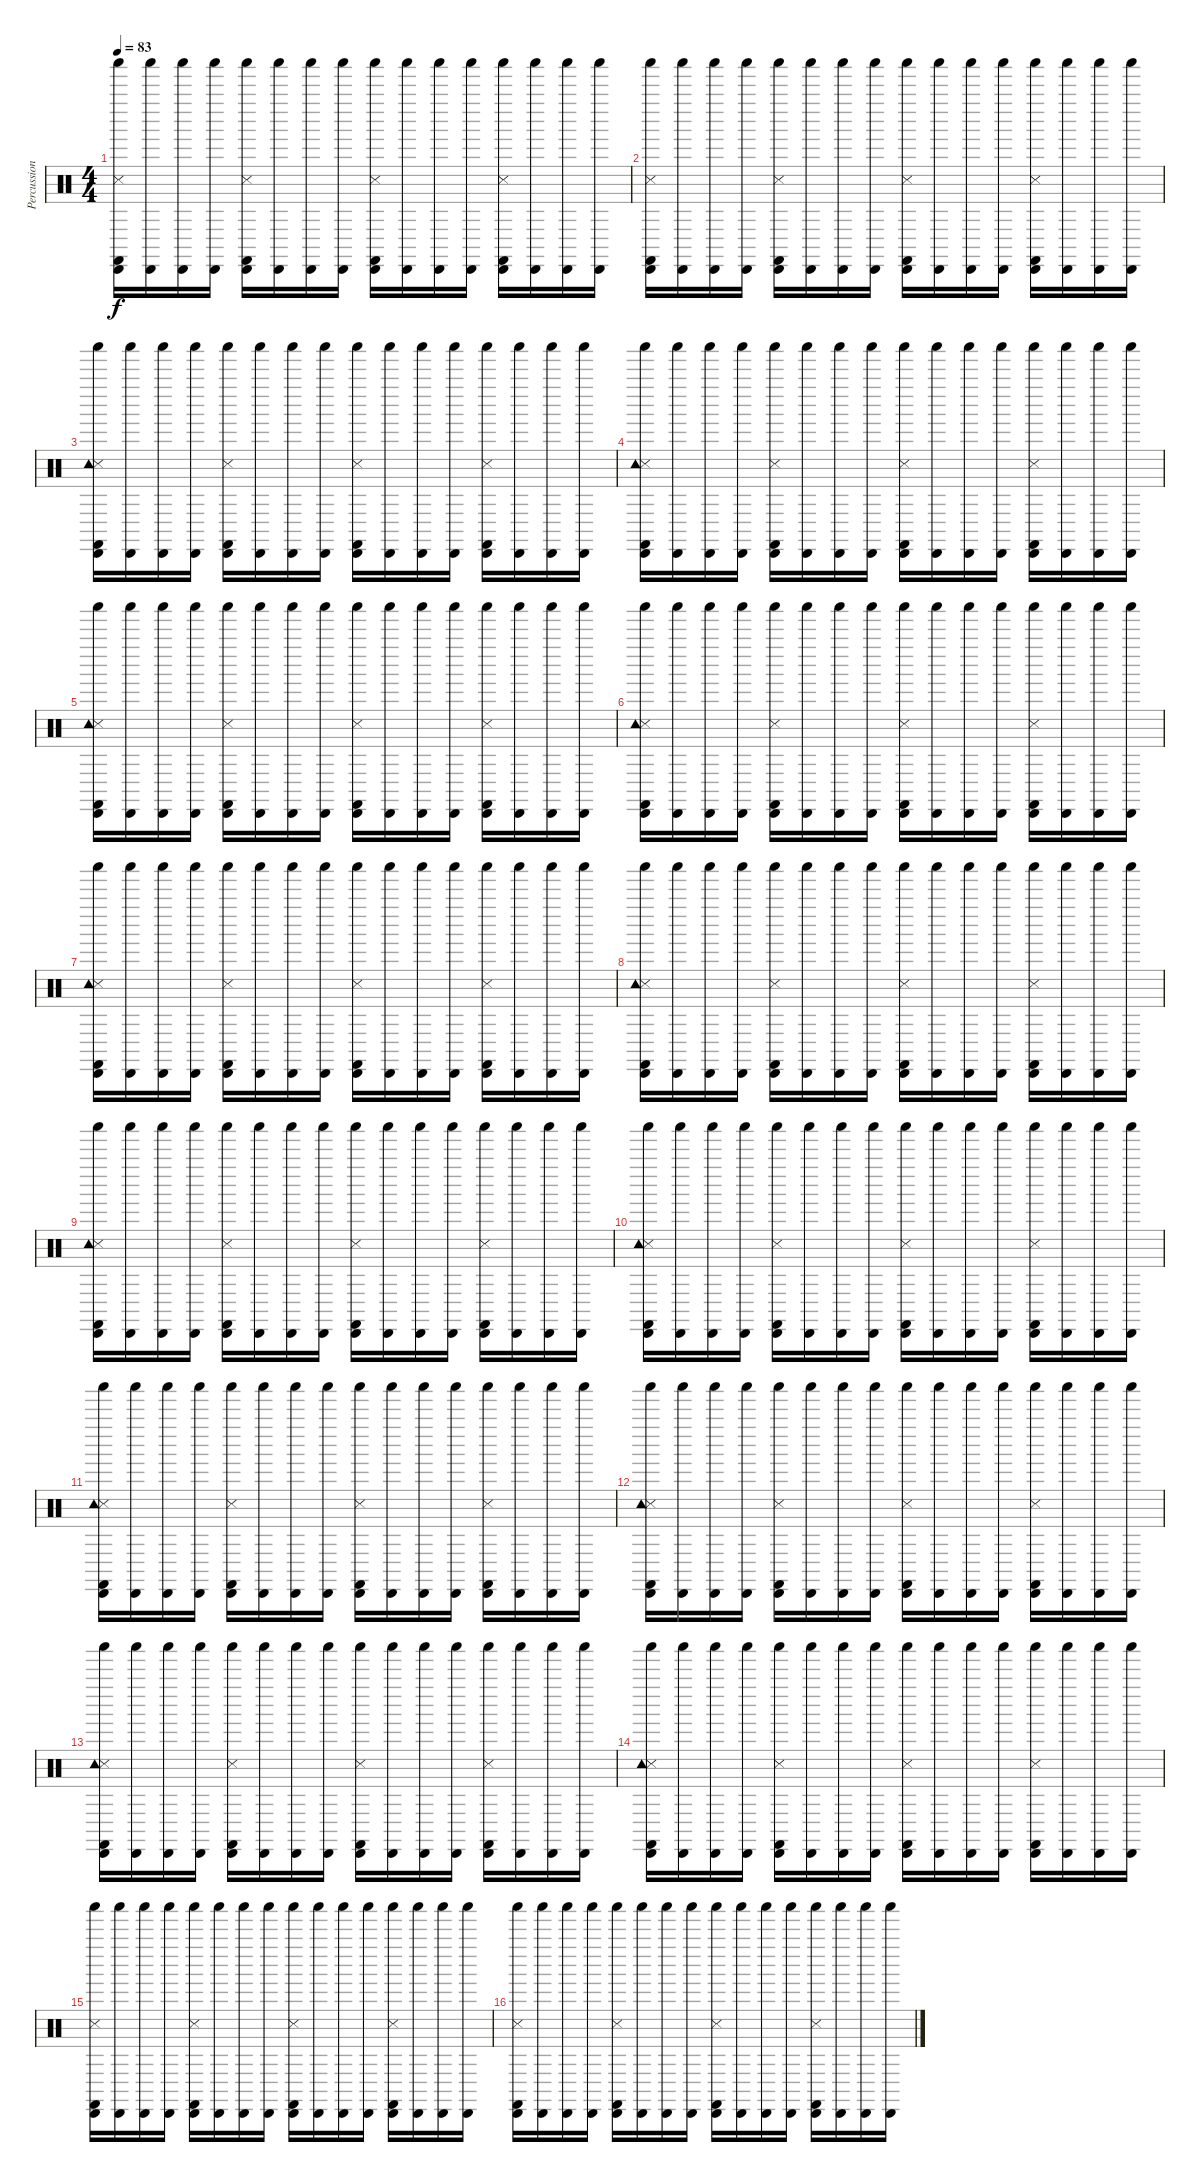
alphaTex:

\track ("Percussion" "Percussion") {instrument percussion}
\staff {score}
\articulation defaults
\ts (4 4)
\tempo 83
\clef neutral
\ks c
("Shaker (hit)" "Castanets (hit)" "Snare (side stick) 3" "Cabasa (hit)").16{dy f} ("Shaker (hit)" "Cabasa (hit)").16 ("Shaker (hit)" "Cabasa (hit)").16 ("Shaker (hit)" "Cabasa (hit)").16 ("Shaker (hit)" "Castanets (hit)" "Snare (side stick) 3" "Cabasa (hit)").16 ("Shaker (hit)" "Cabasa (hit)").16 ("Shaker (hit)" "Cabasa (hit)").16 ("Shaker (hit)" "Cabasa (hit)").16 ("Shaker (hit)" "Castanets (hit)" "Snare (side stick) 3" "Cabasa (hit)").16 ("Shaker (hit)" "Cabasa (hit)").16 ("Shaker (hit)" "Cabasa (hit)").16 ("Shaker (hit)" "Cabasa (hit)").16 ("Shaker (hit)" "Castanets (hit)" "Snare (side stick) 3" "Cabasa (hit)").16 ("Shaker (hit)" "Cabasa (hit)").16 ("Shaker (hit)" "Cabasa (hit)").16 ("Shaker (hit)" "Cabasa (hit)").16 |
("Shaker (hit)" "Castanets (hit)" "Snare (side stick) 3" "Cabasa (hit)").16 ("Shaker (hit)" "Cabasa (hit)").16 ("Shaker (hit)" "Cabasa (hit)").16 ("Shaker (hit)" "Cabasa (hit)").16 ("Shaker (hit)" "Castanets (hit)" "Snare (side stick) 3" "Cabasa (hit)").16 ("Shaker (hit)" "Cabasa (hit)").16 ("Shaker (hit)" "Cabasa (hit)").16 ("Shaker (hit)" "Cabasa (hit)").16 ("Shaker (hit)" "Castanets (hit)" "Snare (side stick) 3" "Cabasa (hit)").16 ("Shaker (hit)" "Cabasa (hit)").16 ("Shaker (hit)" "Cabasa (hit)").16 ("Shaker (hit)" "Cabasa (hit)").16 ("Shaker (hit)" "Castanets (hit)" "Snare (side stick) 3" "Cabasa (hit)").16 ("Shaker (hit)" "Cabasa (hit)").16 ("Shaker (hit)" "Cabasa (hit)").16 ("Shaker (hit)" "Cabasa (hit)").16 |
("Shaker (hit)" "Castanets (hit)" "Snare (side stick) 3" "Cabasa (hit)" "Tambourine (hit)").16 ("Shaker (hit)" "Cabasa (hit)").16 ("Shaker (hit)" "Cabasa (hit)").16 ("Shaker (hit)" "Cabasa (hit)").16 ("Shaker (hit)" "Castanets (hit)" "Snare (side stick) 3" "Cabasa (hit)").16 ("Shaker (hit)" "Cabasa (hit)").16 ("Shaker (hit)" "Cabasa (hit)").16 ("Shaker (hit)" "Cabasa (hit)").16 ("Shaker (hit)" "Castanets (hit)" "Snare (side stick) 3" "Cabasa (hit)").16 ("Shaker (hit)" "Cabasa (hit)").16 ("Shaker (hit)" "Cabasa (hit)").16 ("Shaker (hit)" "Cabasa (hit)").16 ("Shaker (hit)" "Castanets (hit)" "Snare (side stick) 3" "Cabasa (hit)").16 ("Shaker (hit)" "Cabasa (hit)").16 ("Shaker (hit)" "Cabasa (hit)").16 ("Shaker (hit)" "Cabasa (hit)").16 |
("Shaker (hit)" "Castanets (hit)" "Snare (side stick) 3" "Cabasa (hit)" "Tambourine (hit)").16 ("Shaker (hit)" "Cabasa (hit)").16 ("Shaker (hit)" "Cabasa (hit)").16 ("Shaker (hit)" "Cabasa (hit)").16 ("Shaker (hit)" "Castanets (hit)" "Snare (side stick) 3" "Cabasa (hit)").16 ("Shaker (hit)" "Cabasa (hit)").16 ("Shaker (hit)" "Cabasa (hit)").16 ("Shaker (hit)" "Cabasa (hit)").16 ("Shaker (hit)" "Castanets (hit)" "Snare (side stick) 3" "Cabasa (hit)").16 ("Shaker (hit)" "Cabasa (hit)").16 ("Shaker (hit)" "Cabasa (hit)").16 ("Shaker (hit)" "Cabasa (hit)").16 ("Shaker (hit)" "Castanets (hit)" "Snare (side stick) 3" "Cabasa (hit)").16 ("Shaker (hit)" "Cabasa (hit)").16 ("Shaker (hit)" "Cabasa (hit)").16 ("Shaker (hit)" "Cabasa (hit)").16 |
("Shaker (hit)" "Castanets (hit)" "Snare (side stick) 3" "Cabasa (hit)" "Tambourine (hit)").16 ("Shaker (hit)" "Cabasa (hit)").16 ("Shaker (hit)" "Cabasa (hit)").16 ("Shaker (hit)" "Cabasa (hit)").16 ("Shaker (hit)" "Castanets (hit)" "Snare (side stick) 3" "Cabasa (hit)").16 ("Shaker (hit)" "Cabasa (hit)").16 ("Shaker (hit)" "Cabasa (hit)").16 ("Shaker (hit)" "Cabasa (hit)").16 ("Shaker (hit)" "Castanets (hit)" "Snare (side stick) 3" "Cabasa (hit)").16 ("Shaker (hit)" "Cabasa (hit)").16 ("Shaker (hit)" "Cabasa (hit)").16 ("Shaker (hit)" "Cabasa (hit)").16 ("Shaker (hit)" "Castanets (hit)" "Snare (side stick) 3" "Cabasa (hit)").16 ("Shaker (hit)" "Cabasa (hit)").16 ("Shaker (hit)" "Cabasa (hit)").16 ("Shaker (hit)" "Cabasa (hit)").16 |
("Shaker (hit)" "Castanets (hit)" "Snare (side stick) 3" "Cabasa (hit)" "Tambourine (hit)").16 ("Shaker (hit)" "Cabasa (hit)").16 ("Shaker (hit)" "Cabasa (hit)").16 ("Shaker (hit)" "Cabasa (hit)").16 ("Shaker (hit)" "Castanets (hit)" "Snare (side stick) 3" "Cabasa (hit)").16 ("Shaker (hit)" "Cabasa (hit)").16 ("Shaker (hit)" "Cabasa (hit)").16 ("Shaker (hit)" "Cabasa (hit)").16 ("Shaker (hit)" "Castanets (hit)" "Snare (side stick) 3" "Cabasa (hit)").16 ("Shaker (hit)" "Cabasa (hit)").16 ("Shaker (hit)" "Cabasa (hit)").16 ("Shaker (hit)" "Cabasa (hit)").16 ("Shaker (hit)" "Castanets (hit)" "Snare (side stick) 3" "Cabasa (hit)").16 ("Shaker (hit)" "Cabasa (hit)").16 ("Shaker (hit)" "Cabasa (hit)").16 ("Shaker (hit)" "Cabasa (hit)").16 |
("Shaker (hit)" "Castanets (hit)" "Snare (side stick) 3" "Cabasa (hit)" "Tambourine (hit)").16 ("Shaker (hit)" "Cabasa (hit)").16 ("Shaker (hit)" "Cabasa (hit)").16 ("Shaker (hit)" "Cabasa (hit)").16 ("Shaker (hit)" "Castanets (hit)" "Snare (side stick) 3" "Cabasa (hit)").16 ("Shaker (hit)" "Cabasa (hit)").16 ("Shaker (hit)" "Cabasa (hit)").16 ("Shaker (hit)" "Cabasa (hit)").16 ("Shaker (hit)" "Castanets (hit)" "Snare (side stick) 3" "Cabasa (hit)").16 ("Shaker (hit)" "Cabasa (hit)").16 ("Shaker (hit)" "Cabasa (hit)").16 ("Shaker (hit)" "Cabasa (hit)").16 ("Shaker (hit)" "Castanets (hit)" "Snare (side stick) 3" "Cabasa (hit)").16 ("Shaker (hit)" "Cabasa (hit)").16 ("Shaker (hit)" "Cabasa (hit)").16 ("Shaker (hit)" "Cabasa (hit)").16 |
("Shaker (hit)" "Castanets (hit)" "Snare (side stick) 3" "Cabasa (hit)" "Tambourine (hit)").16 ("Shaker (hit)" "Cabasa (hit)").16 ("Shaker (hit)" "Cabasa (hit)").16 ("Shaker (hit)" "Cabasa (hit)").16 ("Shaker (hit)" "Castanets (hit)" "Snare (side stick) 3" "Cabasa (hit)").16 ("Shaker (hit)" "Cabasa (hit)").16 ("Shaker (hit)" "Cabasa (hit)").16 ("Shaker (hit)" "Cabasa (hit)").16 ("Shaker (hit)" "Castanets (hit)" "Snare (side stick) 3" "Cabasa (hit)").16 ("Shaker (hit)" "Cabasa (hit)").16 ("Shaker (hit)" "Cabasa (hit)").16 ("Shaker (hit)" "Cabasa (hit)").16 ("Shaker (hit)" "Castanets (hit)" "Snare (side stick) 3" "Cabasa (hit)").16 ("Shaker (hit)" "Cabasa (hit)").16 ("Shaker (hit)" "Cabasa (hit)").16 ("Shaker (hit)" "Cabasa (hit)").16 |
("Shaker (hit)" "Castanets (hit)" "Snare (side stick) 3" "Cabasa (hit)" "Tambourine (hit)").16 ("Shaker (hit)" "Cabasa (hit)").16 ("Shaker (hit)" "Cabasa (hit)").16 ("Shaker (hit)" "Cabasa (hit)").16 ("Shaker (hit)" "Castanets (hit)" "Snare (side stick) 3" "Cabasa (hit)").16 ("Shaker (hit)" "Cabasa (hit)").16 ("Shaker (hit)" "Cabasa (hit)").16 ("Shaker (hit)" "Cabasa (hit)").16 ("Shaker (hit)" "Castanets (hit)" "Snare (side stick) 3" "Cabasa (hit)").16 ("Shaker (hit)" "Cabasa (hit)").16 ("Shaker (hit)" "Cabasa (hit)").16 ("Shaker (hit)" "Cabasa (hit)").16 ("Shaker (hit)" "Castanets (hit)" "Snare (side stick) 3" "Cabasa (hit)").16 ("Shaker (hit)" "Cabasa (hit)").16 ("Shaker (hit)" "Cabasa (hit)").16 ("Shaker (hit)" "Cabasa (hit)").16 |
("Shaker (hit)" "Castanets (hit)" "Snare (side stick) 3" "Cabasa (hit)" "Tambourine (hit)").16 ("Shaker (hit)" "Cabasa (hit)").16 ("Shaker (hit)" "Cabasa (hit)").16 ("Shaker (hit)" "Cabasa (hit)").16 ("Shaker (hit)" "Castanets (hit)" "Snare (side stick) 3" "Cabasa (hit)").16 ("Shaker (hit)" "Cabasa (hit)").16 ("Shaker (hit)" "Cabasa (hit)").16 ("Shaker (hit)" "Cabasa (hit)").16 ("Shaker (hit)" "Castanets (hit)" "Snare (side stick) 3" "Cabasa (hit)").16 ("Shaker (hit)" "Cabasa (hit)").16 ("Shaker (hit)" "Cabasa (hit)").16 ("Shaker (hit)" "Cabasa (hit)").16 ("Shaker (hit)" "Castanets (hit)" "Snare (side stick) 3" "Cabasa (hit)").16 ("Shaker (hit)" "Cabasa (hit)").16 ("Shaker (hit)" "Cabasa (hit)").16 ("Shaker (hit)" "Cabasa (hit)").16 |
("Shaker (hit)" "Castanets (hit)" "Snare (side stick) 3" "Cabasa (hit)" "Tambourine (hit)").16 ("Shaker (hit)" "Cabasa (hit)").16 ("Shaker (hit)" "Cabasa (hit)").16 ("Shaker (hit)" "Cabasa (hit)").16 ("Shaker (hit)" "Castanets (hit)" "Snare (side stick) 3" "Cabasa (hit)").16 ("Shaker (hit)" "Cabasa (hit)").16 ("Shaker (hit)" "Cabasa (hit)").16 ("Shaker (hit)" "Cabasa (hit)").16 ("Shaker (hit)" "Castanets (hit)" "Snare (side stick) 3" "Cabasa (hit)").16 ("Shaker (hit)" "Cabasa (hit)").16 ("Shaker (hit)" "Cabasa (hit)").16 ("Shaker (hit)" "Cabasa (hit)").16 ("Shaker (hit)" "Castanets (hit)" "Snare (side stick) 3" "Cabasa (hit)").16 ("Shaker (hit)" "Cabasa (hit)").16 ("Shaker (hit)" "Cabasa (hit)").16 ("Shaker (hit)" "Cabasa (hit)").16 |
("Shaker (hit)" "Castanets (hit)" "Snare (side stick) 3" "Cabasa (hit)" "Tambourine (hit)").16 ("Shaker (hit)" "Cabasa (hit)").16 ("Shaker (hit)" "Cabasa (hit)").16 ("Shaker (hit)" "Cabasa (hit)").16 ("Shaker (hit)" "Castanets (hit)" "Snare (side stick) 3" "Cabasa (hit)").16 ("Shaker (hit)" "Cabasa (hit)").16 ("Shaker (hit)" "Cabasa (hit)").16 ("Shaker (hit)" "Cabasa (hit)").16 ("Shaker (hit)" "Castanets (hit)" "Snare (side stick) 3" "Cabasa (hit)").16 ("Shaker (hit)" "Cabasa (hit)").16 ("Shaker (hit)" "Cabasa (hit)").16 ("Shaker (hit)" "Cabasa (hit)").16 ("Shaker (hit)" "Castanets (hit)" "Snare (side stick) 3" "Cabasa (hit)").16 ("Shaker (hit)" "Cabasa (hit)").16 ("Shaker (hit)" "Cabasa (hit)").16 ("Shaker (hit)" "Cabasa (hit)").16 |
("Shaker (hit)" "Castanets (hit)" "Snare (side stick) 3" "Cabasa (hit)" "Tambourine (hit)").16 ("Shaker (hit)" "Cabasa (hit)").16 ("Shaker (hit)" "Cabasa (hit)").16 ("Shaker (hit)" "Cabasa (hit)").16 ("Shaker (hit)" "Castanets (hit)" "Snare (side stick) 3" "Cabasa (hit)").16 ("Shaker (hit)" "Cabasa (hit)").16 ("Shaker (hit)" "Cabasa (hit)").16 ("Shaker (hit)" "Cabasa (hit)").16 ("Shaker (hit)" "Castanets (hit)" "Snare (side stick) 3" "Cabasa (hit)").16 ("Shaker (hit)" "Cabasa (hit)").16 ("Shaker (hit)" "Cabasa (hit)").16 ("Shaker (hit)" "Cabasa (hit)").16 ("Shaker (hit)" "Castanets (hit)" "Snare (side stick) 3" "Cabasa (hit)").16 ("Shaker (hit)" "Cabasa (hit)").16 ("Shaker (hit)" "Cabasa (hit)").16 ("Shaker (hit)" "Cabasa (hit)").16 |
("Shaker (hit)" "Castanets (hit)" "Snare (side stick) 3" "Cabasa (hit)" "Tambourine (hit)").16 ("Shaker (hit)" "Cabasa (hit)").16 ("Shaker (hit)" "Cabasa (hit)").16 ("Shaker (hit)" "Cabasa (hit)").16 ("Shaker (hit)" "Castanets (hit)" "Snare (side stick) 3" "Cabasa (hit)").16 ("Shaker (hit)" "Cabasa (hit)").16 ("Shaker (hit)" "Cabasa (hit)").16 ("Shaker (hit)" "Cabasa (hit)").16 ("Shaker (hit)" "Castanets (hit)" "Snare (side stick) 3" "Cabasa (hit)").16 ("Shaker (hit)" "Cabasa (hit)").16 ("Shaker (hit)" "Cabasa (hit)").16 ("Shaker (hit)" "Cabasa (hit)").16 ("Shaker (hit)" "Castanets (hit)" "Snare (side stick) 3" "Cabasa (hit)").16 ("Shaker (hit)" "Cabasa (hit)").16 ("Shaker (hit)" "Cabasa (hit)").16 ("Shaker (hit)" "Cabasa (hit)").16 |
("Shaker (hit)" "Castanets (hit)" "Snare (side stick) 3" "Cabasa (hit)").16 ("Shaker (hit)" "Cabasa (hit)").16 ("Shaker (hit)" "Cabasa (hit)").16 ("Shaker (hit)" "Cabasa (hit)").16 ("Shaker (hit)" "Castanets (hit)" "Snare (side stick) 3" "Cabasa (hit)").16 ("Shaker (hit)" "Cabasa (hit)").16 ("Shaker (hit)" "Cabasa (hit)").16 ("Shaker (hit)" "Cabasa (hit)").16 ("Shaker (hit)" "Castanets (hit)" "Snare (side stick) 3" "Cabasa (hit)").16 ("Shaker (hit)" "Cabasa (hit)").16 ("Shaker (hit)" "Cabasa (hit)").16 ("Shaker (hit)" "Cabasa (hit)").16 ("Shaker (hit)" "Castanets (hit)" "Snare (side stick) 3" "Cabasa (hit)").16 ("Shaker (hit)" "Cabasa (hit)").16 ("Shaker (hit)" "Cabasa (hit)").16 ("Shaker (hit)" "Cabasa (hit)").16 |
("Shaker (hit)" "Castanets (hit)" "Snare (side stick) 3" "Cabasa (hit)").16 ("Shaker (hit)" "Cabasa (hit)").16 ("Shaker (hit)" "Cabasa (hit)").16 ("Shaker (hit)" "Cabasa (hit)").16 ("Shaker (hit)" "Castanets (hit)" "Snare (side stick) 3" "Cabasa (hit)").16 ("Shaker (hit)" "Cabasa (hit)").16 ("Shaker (hit)" "Cabasa (hit)").16 ("Shaker (hit)" "Cabasa (hit)").16 ("Shaker (hit)" "Castanets (hit)" "Snare (side stick) 3" "Cabasa (hit)").16 ("Shaker (hit)" "Cabasa (hit)").16 ("Shaker (hit)" "Cabasa (hit)").16 ("Shaker (hit)" "Cabasa (hit)").16 ("Shaker (hit)" "Castanets (hit)" "Snare (side stick) 3" "Cabasa (hit)").16 ("Shaker (hit)" "Cabasa (hit)").16 ("Shaker (hit)" "Cabasa (hit)").16 ("Shaker (hit)" "Cabasa (hit)").16
